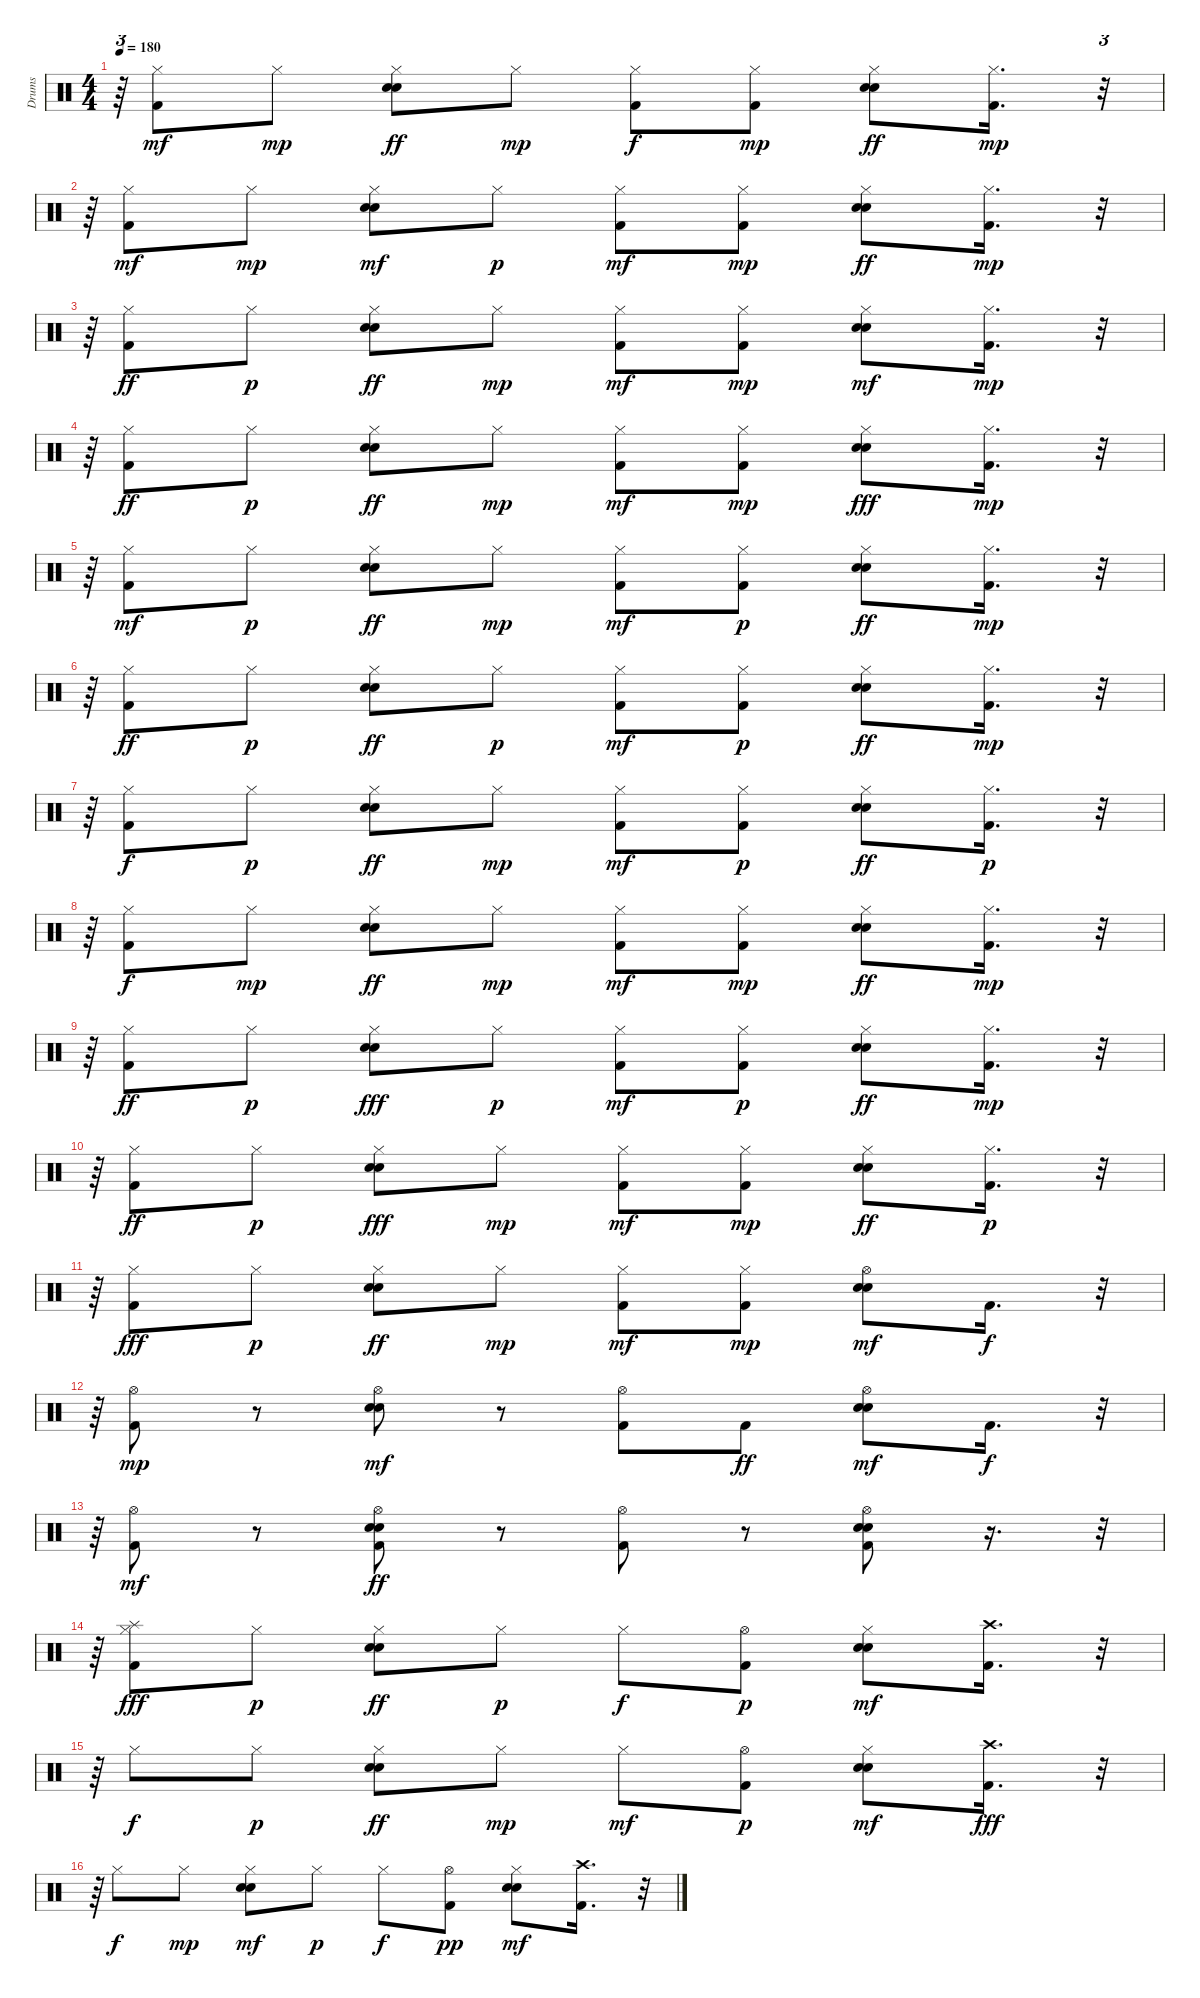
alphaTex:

\track ("Drums" "Drums") {instrument percussion}
\staff {score}
\articulation defaults
\ts (4 4)
\tempo 180
\clef neutral
\ks c
r.64{tu (3 2) dy p} ("Kick (hit) 2" "Hi-Hat (closed)").8{dy mf} "Hi-Hat (closed)".8{dy mp} ("Electric Snare (hit)" "Snare (hit) 2" "Hi-Hat (closed)").8{dy ff} "Hi-Hat (closed)".8{dy mp} ("Kick (hit) 2" "Hi-Hat (closed)").8{dy f} ("Kick (hit) 2" "Hi-Hat (closed)").8{dy mp} ("Electric Snare (hit)" "Snare (hit) 2" "Hi-Hat (closed)").8{dy ff} ("Kick (hit) 2" "Hi-Hat (closed)").16{d dy mp} r.32{tu (3 2)} |
r.64{tu (3 2)} ("Kick (hit) 2" "Hi-Hat (closed)").8{dy mf} "Hi-Hat (closed)".8{dy mp} ("Electric Snare (hit)" "Snare (hit) 2" "Hi-Hat (closed)").8{dy mf} "Hi-Hat (closed)".8{dy p} ("Kick (hit) 2" "Hi-Hat (closed)").8{dy mf} ("Kick (hit) 2" "Hi-Hat (closed)").8{dy mp} ("Electric Snare (hit)" "Snare (hit) 2" "Hi-Hat (closed)").8{dy ff} ("Kick (hit) 2" "Hi-Hat (closed)").16{d dy mp} r.32{tu (3 2)} |
r.64{tu (3 2)} ("Kick (hit) 2" "Hi-Hat (closed)").8{dy ff} "Hi-Hat (closed)".8{dy p} ("Electric Snare (hit)" "Snare (hit) 2" "Hi-Hat (closed)").8{dy ff} "Hi-Hat (closed)".8{dy mp} ("Kick (hit) 2" "Hi-Hat (closed)").8{dy mf} ("Kick (hit) 2" "Hi-Hat (closed)").8{dy mp} ("Electric Snare (hit)" "Snare (hit) 2" "Hi-Hat (closed)").8{dy mf} ("Kick (hit) 2" "Hi-Hat (closed)").16{d dy mp} r.32{tu (3 2)} |
r.64{tu (3 2)} ("Kick (hit) 2" "Hi-Hat (closed)").8{dy ff} "Hi-Hat (closed)".8{dy p} ("Electric Snare (hit)" "Snare (hit) 2" "Hi-Hat (closed)").8{dy ff} "Hi-Hat (closed)".8{dy mp} ("Kick (hit) 2" "Hi-Hat (closed)").8{dy mf} ("Kick (hit) 2" "Hi-Hat (closed)").8{dy mp} ("Electric Snare (hit)" "Snare (hit) 2" "Hi-Hat (closed)").8{dy fff} ("Kick (hit) 2" "Hi-Hat (closed)").16{d dy mp} r.32{tu (3 2)} |
r.64{tu (3 2)} ("Kick (hit) 2" "Hi-Hat (closed)").8{dy mf} "Hi-Hat (closed)".8{dy p} ("Electric Snare (hit)" "Snare (hit) 2" "Hi-Hat (closed)").8{dy ff} "Hi-Hat (closed)".8{dy mp} ("Kick (hit) 2" "Hi-Hat (closed)").8{dy mf} ("Kick (hit) 2" "Hi-Hat (closed)").8{dy p} ("Electric Snare (hit)" "Snare (hit) 2" "Hi-Hat (closed)").8{dy ff} ("Kick (hit) 2" "Hi-Hat (closed)").16{d dy mp} r.32{tu (3 2)} |
r.64{tu (3 2)} ("Kick (hit) 2" "Hi-Hat (closed)").8{dy ff} "Hi-Hat (closed)".8{dy p} ("Electric Snare (hit)" "Snare (hit) 2" "Hi-Hat (closed)").8{dy ff} "Hi-Hat (closed)".8{dy p} ("Kick (hit) 2" "Hi-Hat (closed)").8{dy mf} ("Kick (hit) 2" "Hi-Hat (closed)").8{dy p} ("Electric Snare (hit)" "Snare (hit) 2" "Hi-Hat (closed)").8{dy ff} ("Kick (hit) 2" "Hi-Hat (closed)").16{d dy mp} r.32{tu (3 2)} |
r.64{tu (3 2)} ("Kick (hit) 2" "Hi-Hat (closed)").8{dy f} "Hi-Hat (closed)".8{dy p} ("Electric Snare (hit)" "Snare (hit) 2" "Hi-Hat (closed)").8{dy ff} "Hi-Hat (closed)".8{dy mp} ("Kick (hit) 2" "Hi-Hat (closed)").8{dy mf} ("Kick (hit) 2" "Hi-Hat (closed)").8{dy p} ("Electric Snare (hit)" "Snare (hit) 2" "Hi-Hat (closed)").8{dy ff} ("Kick (hit) 2" "Hi-Hat (closed)").16{d dy p} r.32{tu (3 2)} |
r.64{tu (3 2)} ("Kick (hit) 2" "Hi-Hat (closed)").8{dy f} "Hi-Hat (closed)".8{dy mp} ("Electric Snare (hit)" "Snare (hit) 2" "Hi-Hat (closed)").8{dy ff} "Hi-Hat (closed)".8{dy mp} ("Kick (hit) 2" "Hi-Hat (closed)").8{dy mf} ("Kick (hit) 2" "Hi-Hat (closed)").8{dy mp} ("Electric Snare (hit)" "Snare (hit) 2" "Hi-Hat (closed)").8{dy ff} ("Kick (hit) 2" "Hi-Hat (closed)").16{d dy mp} r.32{tu (3 2)} |
r.64{tu (3 2)} ("Kick (hit) 2" "Hi-Hat (closed)").8{dy ff} "Hi-Hat (closed)".8{dy p} ("Electric Snare (hit)" "Snare (hit) 2" "Hi-Hat (closed)").8{dy fff} "Hi-Hat (closed)".8{dy p} ("Kick (hit) 2" "Hi-Hat (closed)").8{dy mf} ("Kick (hit) 2" "Hi-Hat (closed)").8{dy p} ("Electric Snare (hit)" "Snare (hit) 2" "Hi-Hat (closed)").8{dy ff} ("Kick (hit) 2" "Hi-Hat (closed)").16{d dy mp} r.32{tu (3 2)} |
r.64{tu (3 2)} ("Kick (hit) 2" "Hi-Hat (closed)").8{dy ff} "Hi-Hat (closed)".8{dy p} ("Electric Snare (hit)" "Snare (hit) 2" "Hi-Hat (closed)").8{dy fff} "Hi-Hat (closed)".8{dy mp} ("Kick (hit) 2" "Hi-Hat (closed)").8{dy mf} ("Kick (hit) 2" "Hi-Hat (closed)").8{dy mp} ("Electric Snare (hit)" "Snare (hit) 2" "Hi-Hat (closed)").8{dy ff} ("Kick (hit) 2" "Hi-Hat (closed)").16{d dy p} r.32{tu (3 2)} |
r.64{tu (3 2)} ("Kick (hit) 2" "Hi-Hat (closed)").8{dy fff} "Hi-Hat (closed)".8{dy p} ("Electric Snare (hit)" "Snare (hit) 2" "Hi-Hat (closed)").8{dy ff} "Hi-Hat (closed)".8{dy mp} ("Kick (hit) 2" "Hi-Hat (closed)").8{dy mf} ("Kick (hit) 2" "Hi-Hat (closed)").8{dy mp} ("Electric Snare (hit)" "Snare (hit) 2" "Hi-Hat (open)").8{dy mf} "Kick (hit) 2".16{d dy f} r.32{tu (3 2)} |
r.64{tu (3 2)} ("Kick (hit) 2" "Hi-Hat (open)").8{dy mp} r.8 ("Electric Snare (hit)" "Snare (hit) 2" "Hi-Hat (open)").8{dy mf} r.8 ("Kick (hit) 2" "Hi-Hat (open)").8 "Kick (hit) 2".8{dy ff} ("Electric Snare (hit)" "Snare (hit) 2" "Hi-Hat (open)").8{dy mf} "Kick (hit) 2".16{d dy f} r.32{tu (3 2)} |
r.64{tu (3 2)} ("Kick (hit) 2" "Hi-Hat (open)").8{dy mf} r.8 ("Kick (hit) 2" "Electric Snare (hit)" "Snare (hit) 2" "Hi-Hat (open)").8{dy ff} r.8 ("Kick (hit) 2" "Hi-Hat (open)").8 r.8 ("Kick (hit) 2" "Electric Snare (hit)" "Snare (hit) 2" "Hi-Hat (open)").8 r.16{d} r.32{tu (3 2)} |
r.64{tu (3 2)} ("Kick (hit) 2" "Hi-Hat (closed)" "Splash (hit)").8{dy fff} "Hi-Hat (closed)".8{dy p} ("Electric Snare (hit)" "Snare (hit) 2" "Hi-Hat (closed)").8{dy ff} "Hi-Hat (closed)".8{dy p} "Hi-Hat (closed)".8{dy f} ("Kick (hit) 2" "Hi-Hat (open)").8{dy p} ("Electric Snare (hit)" "Snare (hit) 2" "Hi-Hat (closed)").8{dy mf} ("Kick (hit) 2" "Crash high (hit)").16{d} r.32{tu (3 2)} |
r.64{tu (3 2)} "Hi-Hat (closed)".8{dy f} "Hi-Hat (closed)".8{dy p} ("Electric Snare (hit)" "Snare (hit) 2" "Hi-Hat (closed)").8{dy ff} "Hi-Hat (closed)".8{dy mp} "Hi-Hat (closed)".8{dy mf} ("Kick (hit) 2" "Hi-Hat (open)").8{dy p} ("Electric Snare (hit)" "Snare (hit) 2" "Hi-Hat (closed)").8{dy mf} ("Kick (hit) 2" "Crash high (hit)").16{d dy fff} r.32{tu (3 2)} |
r.64{tu (3 2)} "Hi-Hat (closed)".8{dy f} "Hi-Hat (closed)".8{dy mp} ("Electric Snare (hit)" "Snare (hit) 2" "Hi-Hat (closed)").8{dy mf} "Hi-Hat (closed)".8{dy p} "Hi-Hat (closed)".8{dy f} ("Kick (hit) 2" "Hi-Hat (open)").8{dy pp} ("Electric Snare (hit)" "Snare (hit) 2" "Hi-Hat (closed)").8{dy mf} ("Kick (hit) 2" "Crash high (hit)").16{d} r.32{tu (3 2)}
